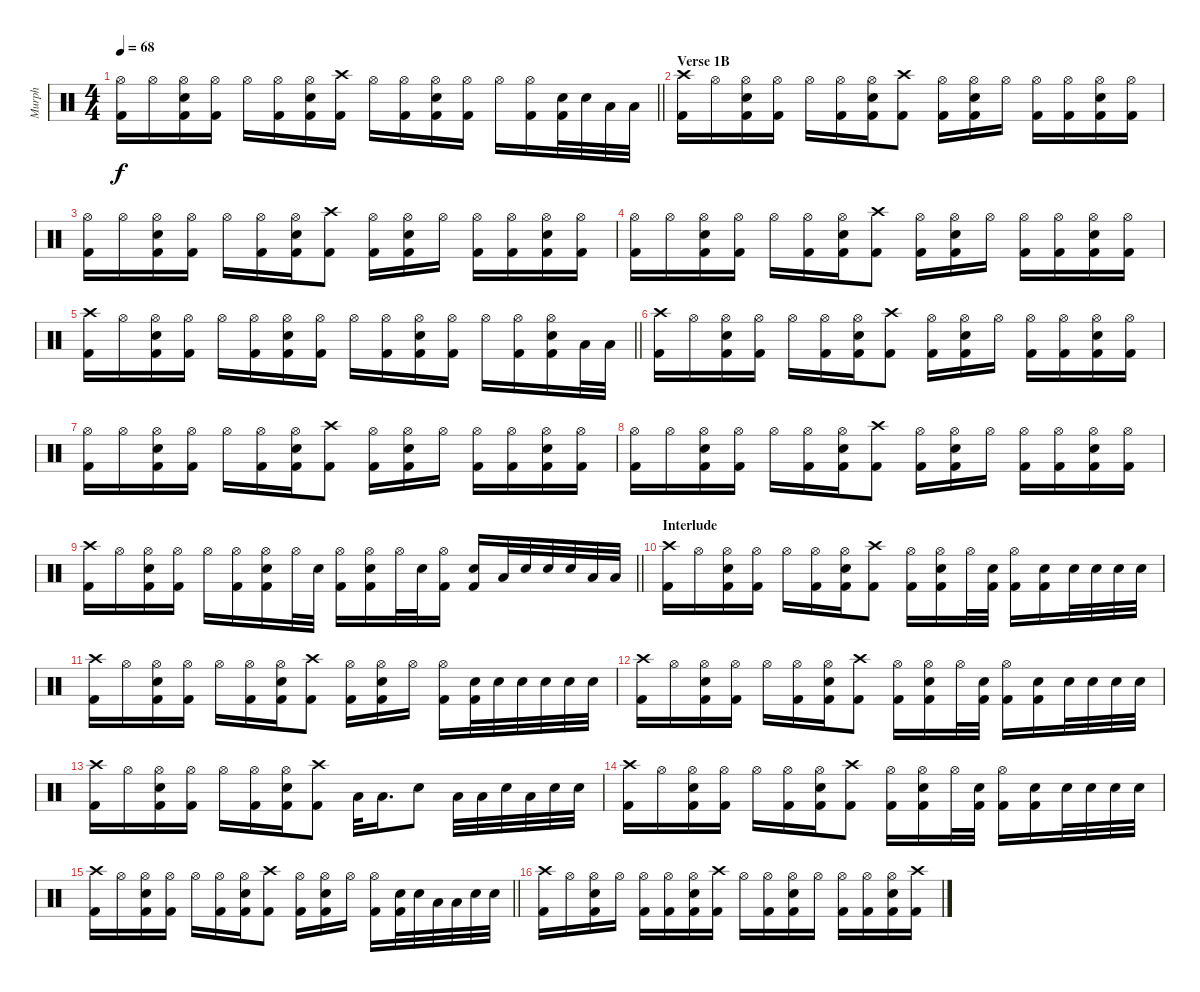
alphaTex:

\track ("Murph" "Murph") {instrument percussion}
\staff {score}
\articulation defaults
\ts (4 4)
\tempo 68
\clef neutral
\barLineRight lightlight
\ks c
("Kick (hit) 2" "Hi-Hat (open)").16{dy f} "Hi-Hat (open)".16 ("Kick (hit) 2" "Snare (hit) 2" "Hi-Hat (open)").16 ("Kick (hit) 2" "Hi-Hat (open)").16 "Hi-Hat (open)".16 ("Kick (hit) 2" "Hi-Hat (open)").16 ("Kick (hit) 2" "Snare (hit) 2" "Hi-Hat (open)").16 ("Kick (hit) 2" "Crash high (hit)").16 "Hi-Hat (open)".16 ("Kick (hit) 2" "Hi-Hat (open)").16 ("Kick (hit) 2" "Snare (hit) 2" "Hi-Hat (open)").16 ("Kick (hit) 2" "Hi-Hat (open)").16 "Hi-Hat (open)".16 ("Kick (hit) 2" "Hi-Hat (open)").16 ("Kick (hit) 2" "Snare (hit) 2").32 "Snare (hit) 2".32 "Low Tom (hit)".32 "Low Floor Tom (hit)".32 |
\section ("" "Verse 1B")
("Kick (hit) 2" "Crash high (hit)").16 "Hi-Hat (open)".16 ("Kick (hit) 2" "Snare (hit) 2" "Hi-Hat (open)").16 ("Kick (hit) 2" "Hi-Hat (open)").16 "Hi-Hat (open)".16 ("Kick (hit) 2" "Hi-Hat (open)").16 ("Kick (hit) 2" "Snare (hit) 2" "Hi-Hat (open)").16 ("Kick (hit) 2" "Crash high (hit)").8 ("Kick (hit) 2" "Hi-Hat (open)").16 ("Kick (hit) 2" "Snare (hit) 2" "Hi-Hat (open)").16 "Hi-Hat (open)".16 ("Kick (hit) 2" "Hi-Hat (open)").16 ("Kick (hit) 2" "Hi-Hat (open)").16 ("Kick (hit) 2" "Snare (hit) 2" "Hi-Hat (open)").16 ("Kick (hit) 2" "Hi-Hat (open)").16 |
("Kick (hit) 2" "Hi-Hat (open)").16 "Hi-Hat (open)".16 ("Kick (hit) 2" "Snare (hit) 2" "Hi-Hat (open)").16 ("Kick (hit) 2" "Hi-Hat (open)").16 "Hi-Hat (open)".16 ("Kick (hit) 2" "Hi-Hat (open)").16 ("Kick (hit) 2" "Snare (hit) 2" "Hi-Hat (open)").16 ("Kick (hit) 2" "Crash high (hit)").8 ("Kick (hit) 2" "Hi-Hat (open)").16 ("Kick (hit) 2" "Snare (hit) 2" "Hi-Hat (open)").16 "Hi-Hat (open)".16 ("Kick (hit) 2" "Hi-Hat (open)").16 ("Kick (hit) 2" "Hi-Hat (open)").16 ("Kick (hit) 2" "Snare (hit) 2" "Hi-Hat (open)").16 ("Kick (hit) 2" "Hi-Hat (open)").16 |
("Kick (hit) 2" "Hi-Hat (open)").16 "Hi-Hat (open)".16 ("Kick (hit) 2" "Snare (hit) 2" "Hi-Hat (open)").16 ("Kick (hit) 2" "Hi-Hat (open)").16 "Hi-Hat (open)".16 ("Kick (hit) 2" "Hi-Hat (open)").16 ("Kick (hit) 2" "Snare (hit) 2" "Hi-Hat (open)").16 ("Kick (hit) 2" "Crash high (hit)").8 ("Kick (hit) 2" "Hi-Hat (open)").16 ("Kick (hit) 2" "Snare (hit) 2" "Hi-Hat (open)").16 "Hi-Hat (open)".16 ("Kick (hit) 2" "Hi-Hat (open)").16 ("Kick (hit) 2" "Hi-Hat (open)").16 ("Kick (hit) 2" "Snare (hit) 2" "Hi-Hat (open)").16 ("Kick (hit) 2" "Hi-Hat (open)").16 |
\barLineRight lightlight
("Kick (hit) 2" "Crash high (hit)").16 "Hi-Hat (open)".16 ("Kick (hit) 2" "Snare (hit) 2" "Hi-Hat (open)").16 ("Kick (hit) 2" "Hi-Hat (open)").16 "Hi-Hat (open)".16 ("Kick (hit) 2" "Hi-Hat (open)").16 ("Kick (hit) 2" "Snare (hit) 2" "Hi-Hat (open)").16 ("Kick (hit) 2" "Hi-Hat (open)").16 "Hi-Hat (open)".16 ("Kick (hit) 2" "Hi-Hat (open)").16 ("Kick (hit) 2" "Snare (hit) 2" "Hi-Hat (open)").16 ("Kick (hit) 2" "Hi-Hat (open)").16 "Hi-Hat (open)".16 ("Kick (hit) 2" "Hi-Hat (open)").16 ("Kick (hit) 2" "Snare (hit) 2" "Hi-Hat (open)").16 "Low Tom (hit)".32 "Low Floor Tom (hit)".32 |
("Kick (hit) 2" "Crash high (hit)").16 "Hi-Hat (open)".16 ("Kick (hit) 2" "Snare (hit) 2" "Hi-Hat (open)").16 ("Kick (hit) 2" "Hi-Hat (open)").16 "Hi-Hat (open)".16 ("Kick (hit) 2" "Hi-Hat (open)").16 ("Kick (hit) 2" "Snare (hit) 2" "Hi-Hat (open)").16 ("Kick (hit) 2" "Crash high (hit)").8 ("Kick (hit) 2" "Hi-Hat (open)").16 ("Kick (hit) 2" "Snare (hit) 2" "Hi-Hat (open)").16 "Hi-Hat (open)".16 ("Kick (hit) 2" "Hi-Hat (open)").16 ("Kick (hit) 2" "Hi-Hat (open)").16 ("Kick (hit) 2" "Snare (hit) 2" "Hi-Hat (open)").16 ("Kick (hit) 2" "Hi-Hat (open)").16 |
("Kick (hit) 2" "Hi-Hat (open)").16 "Hi-Hat (open)".16 ("Kick (hit) 2" "Snare (hit) 2" "Hi-Hat (open)").16 ("Kick (hit) 2" "Hi-Hat (open)").16 "Hi-Hat (open)".16 ("Kick (hit) 2" "Hi-Hat (open)").16 ("Kick (hit) 2" "Snare (hit) 2" "Hi-Hat (open)").16 ("Kick (hit) 2" "Crash high (hit)").8 ("Kick (hit) 2" "Hi-Hat (open)").16 ("Kick (hit) 2" "Snare (hit) 2" "Hi-Hat (open)").16 "Hi-Hat (open)".16 ("Kick (hit) 2" "Hi-Hat (open)").16 ("Kick (hit) 2" "Hi-Hat (open)").16 ("Kick (hit) 2" "Snare (hit) 2" "Hi-Hat (open)").16 ("Kick (hit) 2" "Hi-Hat (open)").16 |
("Kick (hit) 2" "Hi-Hat (open)").16 "Hi-Hat (open)".16 ("Kick (hit) 2" "Snare (hit) 2" "Hi-Hat (open)").16 ("Kick (hit) 2" "Hi-Hat (open)").16 "Hi-Hat (open)".16 ("Kick (hit) 2" "Hi-Hat (open)").16 ("Kick (hit) 2" "Snare (hit) 2" "Hi-Hat (open)").16 ("Kick (hit) 2" "Crash high (hit)").8 ("Kick (hit) 2" "Hi-Hat (open)").16 ("Kick (hit) 2" "Snare (hit) 2" "Hi-Hat (open)").16 "Hi-Hat (open)".16 ("Kick (hit) 2" "Hi-Hat (open)").16 ("Kick (hit) 2" "Hi-Hat (open)").16 ("Kick (hit) 2" "Snare (hit) 2" "Hi-Hat (open)").16 ("Kick (hit) 2" "Hi-Hat (open)").16 |
\barLineRight lightlight
("Kick (hit) 2" "Crash high (hit)").16 "Hi-Hat (open)".16 ("Kick (hit) 2" "Snare (hit) 2" "Hi-Hat (open)").16 ("Kick (hit) 2" "Hi-Hat (open)").16 "Hi-Hat (open)".16 ("Kick (hit) 2" "Hi-Hat (open)").16 ("Kick (hit) 2" "Snare (hit) 2" "Hi-Hat (open)").16 "Hi-Hat (open)".32 "Snare (hit) 2".32 ("Kick (hit) 2" "Hi-Hat (open)").16 ("Kick (hit) 2" "Snare (hit) 2" "Hi-Hat (open)").16 "Hi-Hat (open)".32 "Snare (hit) 2".32 ("Kick (hit) 2" "Hi-Hat (open)").16 ("Kick (hit) 2" "Snare (hit) 2").16 "Low Floor Tom (hit)".32 "Snare (hit) 2".32 "Snare (hit) 2".32 "Snare (hit) 2".32 "Low Tom (hit)".32 "Low Floor Tom (hit)".32 |
\section ("" "Interlude")
("Kick (hit) 2" "Crash high (hit)").16 "Hi-Hat (open)".16 ("Kick (hit) 2" "Snare (hit) 2" "Hi-Hat (open)").16 ("Kick (hit) 2" "Hi-Hat (open)").16 "Hi-Hat (open)".16 ("Kick (hit) 2" "Hi-Hat (open)").16 ("Kick (hit) 2" "Snare (hit) 2" "Hi-Hat (open)").16 ("Kick (hit) 2" "Crash high (hit)").8 ("Kick (hit) 2" "Hi-Hat (open)").16 ("Kick (hit) 2" "Snare (hit) 2" "Hi-Hat (open)").16 "Hi-Hat (open)".32 ("Kick (hit) 2" "Snare (hit) 2").32 ("Kick (hit) 2" "Hi-Hat (open)").16 ("Kick (hit) 2" "Snare (hit) 2").16 "Snare (hit) 2".32 "Snare (hit) 2".32 "Snare (hit) 2".32 "Snare (hit) 2".32 |
("Kick (hit) 2" "Crash high (hit)").16 "Hi-Hat (open)".16 ("Kick (hit) 2" "Snare (hit) 2" "Hi-Hat (open)").16 ("Kick (hit) 2" "Hi-Hat (open)").16 "Hi-Hat (open)".16 ("Kick (hit) 2" "Hi-Hat (open)").16 ("Kick (hit) 2" "Snare (hit) 2" "Hi-Hat (open)").16 ("Kick (hit) 2" "Crash high (hit)").8 ("Kick (hit) 2" "Hi-Hat (open)").16 ("Kick (hit) 2" "Snare (hit) 2" "Hi-Hat (open)").16 "Hi-Hat (open)".16 ("Kick (hit) 2" "Hi-Hat (open)").16 ("Kick (hit) 2" "Snare (hit) 2").32 "Snare (hit) 2".32 "Snare (hit) 2".32 "Snare (hit) 2".32 "Snare (hit) 2".32 "Snare (hit) 2".32 |
("Kick (hit) 2" "Crash high (hit)").16 "Hi-Hat (open)".16 ("Kick (hit) 2" "Snare (hit) 2" "Hi-Hat (open)").16 ("Kick (hit) 2" "Hi-Hat (open)").16 "Hi-Hat (open)".16 ("Kick (hit) 2" "Hi-Hat (open)").16 ("Kick (hit) 2" "Snare (hit) 2" "Hi-Hat (open)").16 ("Kick (hit) 2" "Crash high (hit)").8 ("Kick (hit) 2" "Hi-Hat (open)").16 ("Kick (hit) 2" "Snare (hit) 2" "Hi-Hat (open)").16 "Hi-Hat (open)".32 ("Kick (hit) 2" "Snare (hit) 2").32 ("Kick (hit) 2" "Hi-Hat (open)").16 ("Kick (hit) 2" "Snare (hit) 2").16 "Snare (hit) 2".32 "Snare (hit) 2".32 "Snare (hit) 2".32 "Snare (hit) 2".32 |
("Kick (hit) 2" "Crash high (hit)").16 "Hi-Hat (open)".16 ("Kick (hit) 2" "Snare (hit) 2" "Hi-Hat (open)").16 ("Kick (hit) 2" "Hi-Hat (open)").16 "Hi-Hat (open)".16 ("Kick (hit) 2" "Hi-Hat (open)").16 ("Kick (hit) 2" "Snare (hit) 2" "Hi-Hat (open)").16 ("Kick (hit) 2" "Crash high (hit)").8 "Low Tom (hit)".32 "Low Floor Tom (hit)".16{d} "Snare (hit) 2".8 "Low Tom (hit)".32 "Low Floor Tom (hit)".32 "Snare (hit) 2".32 "Low Floor Tom (hit)".32 "Snare (hit) 2".32 "Snare (hit) 2".32 |
("Kick (hit) 2" "Crash high (hit)").16 "Hi-Hat (open)".16 ("Kick (hit) 2" "Snare (hit) 2" "Hi-Hat (open)").16 ("Kick (hit) 2" "Hi-Hat (open)").16 "Hi-Hat (open)".16 ("Kick (hit) 2" "Hi-Hat (open)").16 ("Kick (hit) 2" "Snare (hit) 2" "Hi-Hat (open)").16 ("Kick (hit) 2" "Crash high (hit)").8 ("Kick (hit) 2" "Hi-Hat (open)").16 ("Kick (hit) 2" "Snare (hit) 2" "Hi-Hat (open)").16 "Hi-Hat (open)".32 ("Kick (hit) 2" "Snare (hit) 2").32 ("Kick (hit) 2" "Hi-Hat (open)").16 ("Kick (hit) 2" "Snare (hit) 2").16 "Snare (hit) 2".32 "Snare (hit) 2".32 "Snare (hit) 2".32 "Snare (hit) 2".32 |
\barLineRight lightlight
("Kick (hit) 2" "Crash high (hit)").16 "Hi-Hat (open)".16 ("Kick (hit) 2" "Snare (hit) 2" "Hi-Hat (open)").16 ("Kick (hit) 2" "Hi-Hat (open)").16 "Hi-Hat (open)".16 ("Kick (hit) 2" "Hi-Hat (open)").16 ("Kick (hit) 2" "Snare (hit) 2" "Hi-Hat (open)").16 ("Kick (hit) 2" "Crash high (hit)").8 ("Kick (hit) 2" "Hi-Hat (open)").16 ("Kick (hit) 2" "Snare (hit) 2" "Hi-Hat (open)").16 "Hi-Hat (open)".16 ("Kick (hit) 2" "Hi-Hat (open)").16 ("Kick (hit) 2" "Snare (hit) 2").32 "Snare (hit) 2".32 "Low Tom (hit)".32 "Low Floor Tom (hit)".32 "Snare (hit) 2".32 "Snare (hit) 2".32 |
("Kick (hit) 2" "Crash high (hit)").16 "Hi-Hat (open)".16 ("Kick (hit) 2" "Snare (hit) 2" "Hi-Hat (open)").16 "Hi-Hat (open)".16 ("Kick (hit) 2" "Hi-Hat (open)").16 ("Kick (hit) 2" "Hi-Hat (open)").16 ("Kick (hit) 2" "Snare (hit) 2" "Hi-Hat (open)").16 ("Kick (hit) 2" "Crash high (hit)").16 "Hi-Hat (open)".16 ("Kick (hit) 2" "Hi-Hat (open)").16 ("Kick (hit) 2" "Snare (hit) 2" "Hi-Hat (open)").16 "Hi-Hat (open)".16 ("Kick (hit) 2" "Hi-Hat (open)").16 ("Kick (hit) 2" "Hi-Hat (open)").16 ("Kick (hit) 2" "Snare (hit) 2" "Hi-Hat (open)").16 ("Kick (hit) 2" "Crash high (hit)").16
